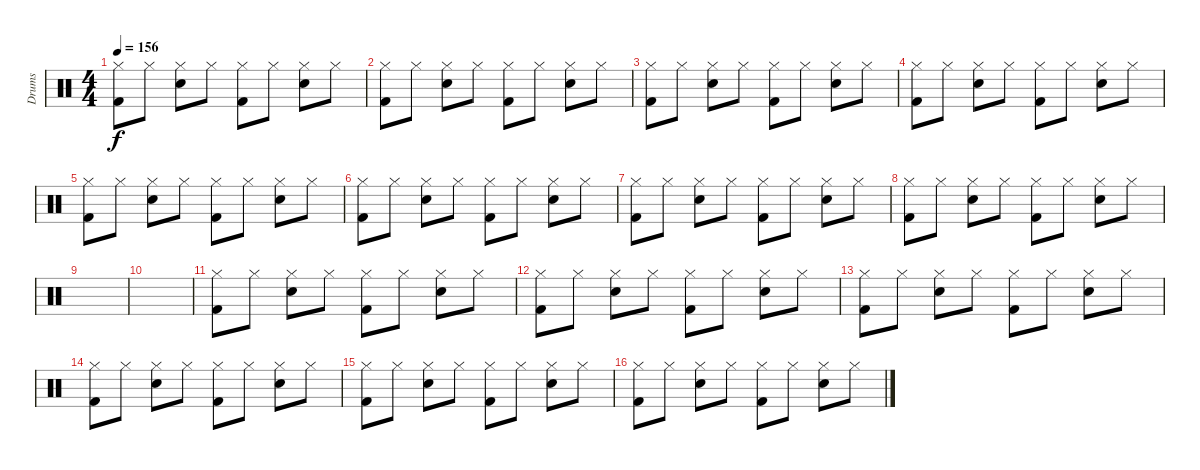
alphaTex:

\track ("Drums" "Drums") {instrument percussion}
\staff {score}
\articulation defaults
\ts (4 4)
\tempo 156
\clef neutral
\ks c
("Hi-Hat (closed)" "Kick (hit) 2").8{dy f} "Hi-Hat (closed)".8 ("Hi-Hat (closed)" "Electric Snare (hit)").8 "Hi-Hat (closed)".8 ("Hi-Hat (closed)" "Kick (hit) 2").8 "Hi-Hat (closed)".8 ("Hi-Hat (closed)" "Electric Snare (hit)").8 "Hi-Hat (closed)".8 |
("Hi-Hat (closed)" "Kick (hit) 2").8 "Hi-Hat (closed)".8 ("Hi-Hat (closed)" "Electric Snare (hit)").8 "Hi-Hat (closed)".8 ("Hi-Hat (closed)" "Kick (hit) 2").8 "Hi-Hat (closed)".8 ("Hi-Hat (closed)" "Electric Snare (hit)").8 "Hi-Hat (closed)".8 |
("Hi-Hat (closed)" "Kick (hit) 2").8 "Hi-Hat (closed)".8 ("Hi-Hat (closed)" "Electric Snare (hit)").8 "Hi-Hat (closed)".8 ("Hi-Hat (closed)" "Kick (hit) 2").8 "Hi-Hat (closed)".8 ("Hi-Hat (closed)" "Electric Snare (hit)").8 "Hi-Hat (closed)".8 |
("Hi-Hat (closed)" "Kick (hit) 2").8 "Hi-Hat (closed)".8 ("Hi-Hat (closed)" "Electric Snare (hit)").8 "Hi-Hat (closed)".8 ("Hi-Hat (closed)" "Kick (hit) 2").8 "Hi-Hat (closed)".8 ("Hi-Hat (closed)" "Electric Snare (hit)").8 "Hi-Hat (closed)".8 |
("Hi-Hat (closed)" "Kick (hit) 2").8 "Hi-Hat (closed)".8 ("Hi-Hat (closed)" "Electric Snare (hit)").8 "Hi-Hat (closed)".8 ("Hi-Hat (closed)" "Kick (hit) 2").8 "Hi-Hat (closed)".8 ("Hi-Hat (closed)" "Electric Snare (hit)").8 "Hi-Hat (closed)".8 |
("Hi-Hat (closed)" "Kick (hit) 2").8 "Hi-Hat (closed)".8 ("Hi-Hat (closed)" "Electric Snare (hit)").8 "Hi-Hat (closed)".8 ("Hi-Hat (closed)" "Kick (hit) 2").8 "Hi-Hat (closed)".8 ("Hi-Hat (closed)" "Electric Snare (hit)").8 "Hi-Hat (closed)".8 |
("Hi-Hat (closed)" "Kick (hit) 2").8 "Hi-Hat (closed)".8 ("Hi-Hat (closed)" "Electric Snare (hit)").8 "Hi-Hat (closed)".8 ("Hi-Hat (closed)" "Kick (hit) 2").8 "Hi-Hat (closed)".8 ("Hi-Hat (closed)" "Electric Snare (hit)").8 "Hi-Hat (closed)".8 |
("Hi-Hat (closed)" "Kick (hit) 2").8 "Hi-Hat (closed)".8 ("Hi-Hat (closed)" "Electric Snare (hit)").8 "Hi-Hat (closed)".8 ("Hi-Hat (closed)" "Kick (hit) 2").8 "Hi-Hat (closed)".8 ("Hi-Hat (closed)" "Electric Snare (hit)").8 "Hi-Hat (closed)".8 |
|
|
("Hi-Hat (closed)" "Kick (hit) 2").8 "Hi-Hat (closed)".8 ("Hi-Hat (closed)" "Electric Snare (hit)").8 "Hi-Hat (closed)".8 ("Hi-Hat (closed)" "Kick (hit) 2").8 "Hi-Hat (closed)".8 ("Hi-Hat (closed)" "Electric Snare (hit)").8 "Hi-Hat (closed)".8 |
("Hi-Hat (closed)" "Kick (hit) 2").8 "Hi-Hat (closed)".8 ("Hi-Hat (closed)" "Electric Snare (hit)").8 "Hi-Hat (closed)".8 ("Hi-Hat (closed)" "Kick (hit) 2").8 "Hi-Hat (closed)".8 ("Hi-Hat (closed)" "Electric Snare (hit)").8 "Hi-Hat (closed)".8 |
("Hi-Hat (closed)" "Kick (hit) 2").8 "Hi-Hat (closed)".8 ("Hi-Hat (closed)" "Electric Snare (hit)").8 "Hi-Hat (closed)".8 ("Hi-Hat (closed)" "Kick (hit) 2").8 "Hi-Hat (closed)".8 ("Hi-Hat (closed)" "Electric Snare (hit)").8 "Hi-Hat (closed)".8 |
("Hi-Hat (closed)" "Kick (hit) 2").8 "Hi-Hat (closed)".8 ("Hi-Hat (closed)" "Electric Snare (hit)").8 "Hi-Hat (closed)".8 ("Hi-Hat (closed)" "Kick (hit) 2").8 "Hi-Hat (closed)".8 ("Hi-Hat (closed)" "Electric Snare (hit)").8 "Hi-Hat (closed)".8 |
("Hi-Hat (closed)" "Kick (hit) 2").8 "Hi-Hat (closed)".8 ("Hi-Hat (closed)" "Electric Snare (hit)").8 "Hi-Hat (closed)".8 ("Hi-Hat (closed)" "Kick (hit) 2").8 "Hi-Hat (closed)".8 ("Hi-Hat (closed)" "Electric Snare (hit)").8 "Hi-Hat (closed)".8 |
("Hi-Hat (closed)" "Kick (hit) 2").8 "Hi-Hat (closed)".8 ("Hi-Hat (closed)" "Electric Snare (hit)").8 "Hi-Hat (closed)".8 ("Hi-Hat (closed)" "Kick (hit) 2").8 "Hi-Hat (closed)".8 ("Hi-Hat (closed)" "Electric Snare (hit)").8 "Hi-Hat (closed)".8
